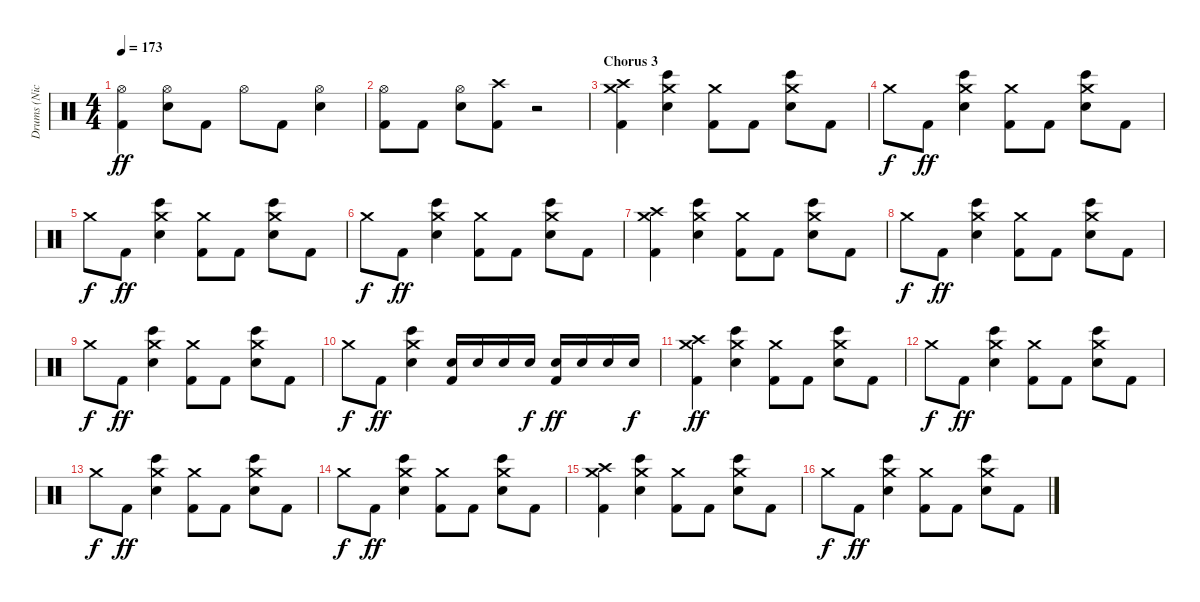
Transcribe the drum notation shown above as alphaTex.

\track ("Drums (Nick Oshiro)" "Drums (Nic") {instrument percussion}
\staff {score}
\articulation defaults
\ts (4 4)
\tempo 173
\clef neutral
\ks c
("Hi-Hat (open)" "Kick (hit) 2").4{dy ff} ("Hi-Hat (open)" "Snare (hit) 2").8 "Kick (hit) 2".8 "Hi-Hat (open)".8 "Kick (hit) 2".8 ("Hi-Hat (open)" "Snare (hit) 2").4 |
("Hi-Hat (open)" "Kick (hit) 2").8 "Kick (hit) 2".8 ("Hi-Hat (open)" "Snare (hit) 2").8 ("Crash high (hit)" "Kick (hit) 2").8 r.2 |
\section ("" "Chorus 3")
("Crash medium (hit)" "Crash high (hit)" "Kick (hit) 2").4 ("Crash medium (hit)" "Bongo High (hit)" "Snare (hit) 2").4 ("Crash medium (hit)" "Kick (hit) 2").8 "Kick (hit) 2".8 ("Crash medium (hit)" "Bongo High (hit)" "Snare (hit) 2").8 "Kick (hit) 2".8 |
"Crash medium (hit)".8{dy f} "Kick (hit) 2".8{dy ff} ("Crash medium (hit)" "Bongo High (hit)" "Snare (hit) 2").4 ("Crash medium (hit)" "Kick (hit) 2").8 "Kick (hit) 2".8 ("Crash medium (hit)" "Bongo High (hit)" "Snare (hit) 2").8 "Kick (hit) 2".8 |
"Crash medium (hit)".8{dy f} "Kick (hit) 2".8{dy ff} ("Crash medium (hit)" "Bongo High (hit)" "Snare (hit) 2").4 ("Crash medium (hit)" "Kick (hit) 2").8 "Kick (hit) 2".8 ("Crash medium (hit)" "Bongo High (hit)" "Snare (hit) 2").8 "Kick (hit) 2".8 |
"Crash medium (hit)".8{dy f} "Kick (hit) 2".8{dy ff} ("Crash medium (hit)" "Bongo High (hit)" "Snare (hit) 2").4 ("Crash medium (hit)" "Kick (hit) 2").8 "Kick (hit) 2".8 ("Crash medium (hit)" "Bongo High (hit)" "Snare (hit) 2").8 "Kick (hit) 2".8 |
("Crash medium (hit)" "Crash high (hit)" "Kick (hit) 2").4 ("Crash medium (hit)" "Bongo High (hit)" "Snare (hit) 2").4 ("Crash medium (hit)" "Kick (hit) 2").8 "Kick (hit) 2".8 ("Crash medium (hit)" "Bongo High (hit)" "Snare (hit) 2").8 "Kick (hit) 2".8 |
"Crash medium (hit)".8{dy f} "Kick (hit) 2".8{dy ff} ("Crash medium (hit)" "Bongo High (hit)" "Snare (hit) 2").4 ("Crash medium (hit)" "Kick (hit) 2").8 "Kick (hit) 2".8 ("Crash medium (hit)" "Bongo High (hit)" "Snare (hit) 2").8 "Kick (hit) 2".8 |
"Crash medium (hit)".8{dy f} "Kick (hit) 2".8{dy ff} ("Crash medium (hit)" "Bongo High (hit)" "Snare (hit) 2").4 ("Crash medium (hit)" "Kick (hit) 2").8 "Kick (hit) 2".8 ("Crash medium (hit)" "Bongo High (hit)" "Snare (hit) 2").8 "Kick (hit) 2".8 |
"Crash medium (hit)".8{dy f} "Kick (hit) 2".8{dy ff} ("Crash medium (hit)" "Bongo High (hit)" "Snare (hit) 2").4 ("Snare (hit) 2" "Kick (hit) 2").16 "Snare (hit) 2".16 "Snare (hit) 2".16 "Snare (hit) 2".16{dy f} ("Snare (hit) 2" "Kick (hit) 2").16{dy ff} "Snare (hit) 2".16 "Snare (hit) 2".16 "Snare (hit) 2".16{dy f} |
("Crash medium (hit)" "Crash high (hit)" "Kick (hit) 2").4{dy ff} ("Crash medium (hit)" "Bongo High (hit)" "Snare (hit) 2").4 ("Crash medium (hit)" "Kick (hit) 2").8 "Kick (hit) 2".8 ("Crash medium (hit)" "Bongo High (hit)" "Snare (hit) 2").8 "Kick (hit) 2".8 |
"Crash medium (hit)".8{dy f} "Kick (hit) 2".8{dy ff} ("Crash medium (hit)" "Bongo High (hit)" "Snare (hit) 2").4 ("Crash medium (hit)" "Kick (hit) 2").8 "Kick (hit) 2".8 ("Crash medium (hit)" "Bongo High (hit)" "Snare (hit) 2").8 "Kick (hit) 2".8 |
"Crash medium (hit)".8{dy f} "Kick (hit) 2".8{dy ff} ("Crash medium (hit)" "Bongo High (hit)" "Snare (hit) 2").4 ("Crash medium (hit)" "Kick (hit) 2").8 "Kick (hit) 2".8 ("Crash medium (hit)" "Bongo High (hit)" "Snare (hit) 2").8 "Kick (hit) 2".8 |
"Crash medium (hit)".8{dy f} "Kick (hit) 2".8{dy ff} ("Crash medium (hit)" "Bongo High (hit)" "Snare (hit) 2").4 ("Crash medium (hit)" "Kick (hit) 2").8 "Kick (hit) 2".8 ("Crash medium (hit)" "Bongo High (hit)" "Snare (hit) 2").8 "Kick (hit) 2".8 |
("Crash medium (hit)" "Crash high (hit)" "Kick (hit) 2").4 ("Crash medium (hit)" "Bongo High (hit)" "Snare (hit) 2").4 ("Crash medium (hit)" "Kick (hit) 2").8 "Kick (hit) 2".8 ("Crash medium (hit)" "Bongo High (hit)" "Snare (hit) 2").8 "Kick (hit) 2".8 |
"Crash medium (hit)".8{dy f} "Kick (hit) 2".8{dy ff} ("Crash medium (hit)" "Bongo High (hit)" "Snare (hit) 2").4 ("Crash medium (hit)" "Kick (hit) 2").8 "Kick (hit) 2".8 ("Crash medium (hit)" "Bongo High (hit)" "Snare (hit) 2").8 "Kick (hit) 2".8
